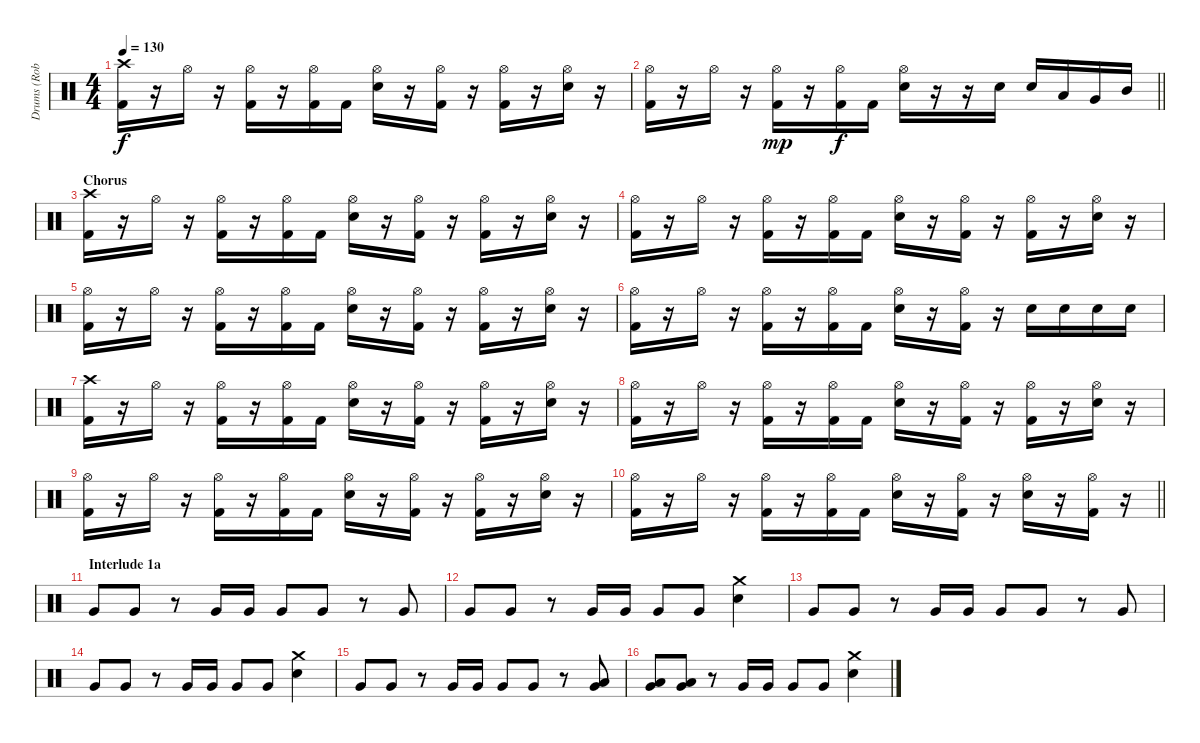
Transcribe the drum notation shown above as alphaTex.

\track ("Drums (Rob)" "Drums (Rob") {instrument percussion}
\staff {score}
\articulation defaults
\ts (4 4)
\tempo 130
\clef neutral
\ks c
("Crash high (hit)" "Kick (hit) 2").16{dy f} r.16 "Hi-Hat (open)".16 r.16 ("Hi-Hat (open)" "Kick (hit) 2").16 r.16 ("Hi-Hat (open)" "Kick (hit) 2").16 "Kick (hit) 2".16 ("Hi-Hat (open)" "Electric Snare (hit)").16 r.16 ("Hi-Hat (open)" "Kick (hit) 2").16 r.16 ("Hi-Hat (open)" "Kick (hit) 2").16 r.16 ("Hi-Hat (open)" "Electric Snare (hit)").16 r.16 |
\barLineRight lightlight
("Hi-Hat (open)" "Kick (hit) 2").16 r.16 "Hi-Hat (open)".16 r.16 ("Hi-Hat (open)" "Kick (hit) 2").16{dy mp} r.16 ("Hi-Hat (open)" "Kick (hit) 2").16{dy f} "Kick (hit) 2".16 ("Hi-Hat (open)" "Electric Snare (hit)").16 r.16 r.16 "Electric Snare (hit)".16 "Electric Snare (hit)".16 "Low Tom (hit)".16 "Very Low Tom (hit)".16 "Mid Tom (hit)".16 |
\section ("" "Chorus")
("Crash high (hit)" "Kick (hit) 2").16 r.16 "Hi-Hat (open)".16 r.16 ("Hi-Hat (open)" "Kick (hit) 2").16 r.16 ("Hi-Hat (open)" "Kick (hit) 2").16 "Kick (hit) 2".16 ("Hi-Hat (open)" "Electric Snare (hit)").16 r.16 ("Hi-Hat (open)" "Kick (hit) 2").16 r.16 ("Hi-Hat (open)" "Kick (hit) 2").16 r.16 ("Hi-Hat (open)" "Electric Snare (hit)").16 r.16 |
("Hi-Hat (open)" "Kick (hit) 2").16 r.16 "Hi-Hat (open)".16 r.16 ("Hi-Hat (open)" "Kick (hit) 2").16 r.16 ("Hi-Hat (open)" "Kick (hit) 2").16 "Kick (hit) 2".16 ("Hi-Hat (open)" "Electric Snare (hit)").16 r.16 ("Hi-Hat (open)" "Kick (hit) 2").16 r.16 ("Hi-Hat (open)" "Kick (hit) 2").16 r.16 ("Hi-Hat (open)" "Electric Snare (hit)").16 r.16 |
("Hi-Hat (open)" "Kick (hit) 2").16 r.16 "Hi-Hat (open)".16 r.16 ("Hi-Hat (open)" "Kick (hit) 2").16 r.16 ("Hi-Hat (open)" "Kick (hit) 2").16 "Kick (hit) 2".16 ("Hi-Hat (open)" "Electric Snare (hit)").16 r.16 ("Hi-Hat (open)" "Kick (hit) 2").16 r.16 ("Hi-Hat (open)" "Kick (hit) 2").16 r.16 ("Hi-Hat (open)" "Electric Snare (hit)").16 r.16 |
("Hi-Hat (open)" "Kick (hit) 2").16 r.16 "Hi-Hat (open)".16 r.16 ("Hi-Hat (open)" "Kick (hit) 2").16 r.16 ("Hi-Hat (open)" "Kick (hit) 2").16 "Kick (hit) 2".16 ("Hi-Hat (open)" "Electric Snare (hit)").16 r.16 ("Hi-Hat (open)" "Kick (hit) 2").16 r.16 "Electric Snare (hit)".16 "Electric Snare (hit)".16 "Electric Snare (hit)".16 "Electric Snare (hit)".16 |
("Crash high (hit)" "Kick (hit) 2").16 r.16 "Hi-Hat (open)".16 r.16 ("Hi-Hat (open)" "Kick (hit) 2").16 r.16 ("Hi-Hat (open)" "Kick (hit) 2").16 "Kick (hit) 2".16 ("Hi-Hat (open)" "Electric Snare (hit)").16 r.16 ("Hi-Hat (open)" "Kick (hit) 2").16 r.16 ("Hi-Hat (open)" "Kick (hit) 2").16 r.16 ("Hi-Hat (open)" "Electric Snare (hit)").16 r.16 |
("Hi-Hat (open)" "Kick (hit) 2").16 r.16 "Hi-Hat (open)".16 r.16 ("Hi-Hat (open)" "Kick (hit) 2").16 r.16 ("Hi-Hat (open)" "Kick (hit) 2").16 "Kick (hit) 2".16 ("Hi-Hat (open)" "Electric Snare (hit)").16 r.16 ("Hi-Hat (open)" "Kick (hit) 2").16 r.16 ("Hi-Hat (open)" "Kick (hit) 2").16 r.16 ("Hi-Hat (open)" "Electric Snare (hit)").16 r.16 |
("Hi-Hat (open)" "Kick (hit) 2").16 r.16 "Hi-Hat (open)".16 r.16 ("Hi-Hat (open)" "Kick (hit) 2").16 r.16 ("Hi-Hat (open)" "Kick (hit) 2").16 "Kick (hit) 2".16 ("Hi-Hat (open)" "Electric Snare (hit)").16 r.16 ("Hi-Hat (open)" "Kick (hit) 2").16 r.16 ("Hi-Hat (open)" "Kick (hit) 2").16 r.16 ("Hi-Hat (open)" "Electric Snare (hit)").16 r.16 |
\barLineRight lightlight
("Hi-Hat (open)" "Kick (hit) 2").16 r.16 "Hi-Hat (open)".16 r.16 ("Hi-Hat (open)" "Kick (hit) 2").16 r.16 ("Hi-Hat (open)" "Kick (hit) 2").16 "Kick (hit) 2".16 ("Hi-Hat (open)" "Electric Snare (hit)").16 r.16 ("Hi-Hat (open)" "Kick (hit) 2").16 r.16 ("Hi-Hat (open)" "Electric Snare (hit)").16 r.16 ("Hi-Hat (open)" "Kick (hit) 2").16 r.16 |
\section ("" "Interlude 1a")
"Very Low Tom (hit)".8 "Very Low Tom (hit)".8 r.8 "Very Low Tom (hit)".16 "Very Low Tom (hit)".16 "Very Low Tom (hit)".8 "Very Low Tom (hit)".8 r.8 "Very Low Tom (hit)".8 |
"Very Low Tom (hit)".8 "Very Low Tom (hit)".8 r.8 "Very Low Tom (hit)".16 "Very Low Tom (hit)".16 "Very Low Tom (hit)".8 "Very Low Tom (hit)".8 ("Crash medium (hit)" "Electric Snare (hit)").4 |
"Very Low Tom (hit)".8 "Very Low Tom (hit)".8 r.8 "Very Low Tom (hit)".16 "Very Low Tom (hit)".16 "Very Low Tom (hit)".8 "Very Low Tom (hit)".8 r.8 "Very Low Tom (hit)".8 |
"Very Low Tom (hit)".8 "Very Low Tom (hit)".8 r.8 "Very Low Tom (hit)".16 "Very Low Tom (hit)".16 "Very Low Tom (hit)".8 "Very Low Tom (hit)".8 ("Crash medium (hit)" "Electric Snare (hit)").4 |
"Very Low Tom (hit)".8 "Very Low Tom (hit)".8 r.8 "Very Low Tom (hit)".16 "Very Low Tom (hit)".16 "Very Low Tom (hit)".8 "Very Low Tom (hit)".8 r.8 ("Very Low Tom (hit)" "Low Tom (hit)").8 |
("Very Low Tom (hit)" "Low Tom (hit)").8 ("Very Low Tom (hit)" "Low Tom (hit)").8 r.8 "Very Low Tom (hit)".16 "Very Low Tom (hit)".16 "Very Low Tom (hit)".8 "Very Low Tom (hit)".8 ("Crash medium (hit)" "Electric Snare (hit)").4
